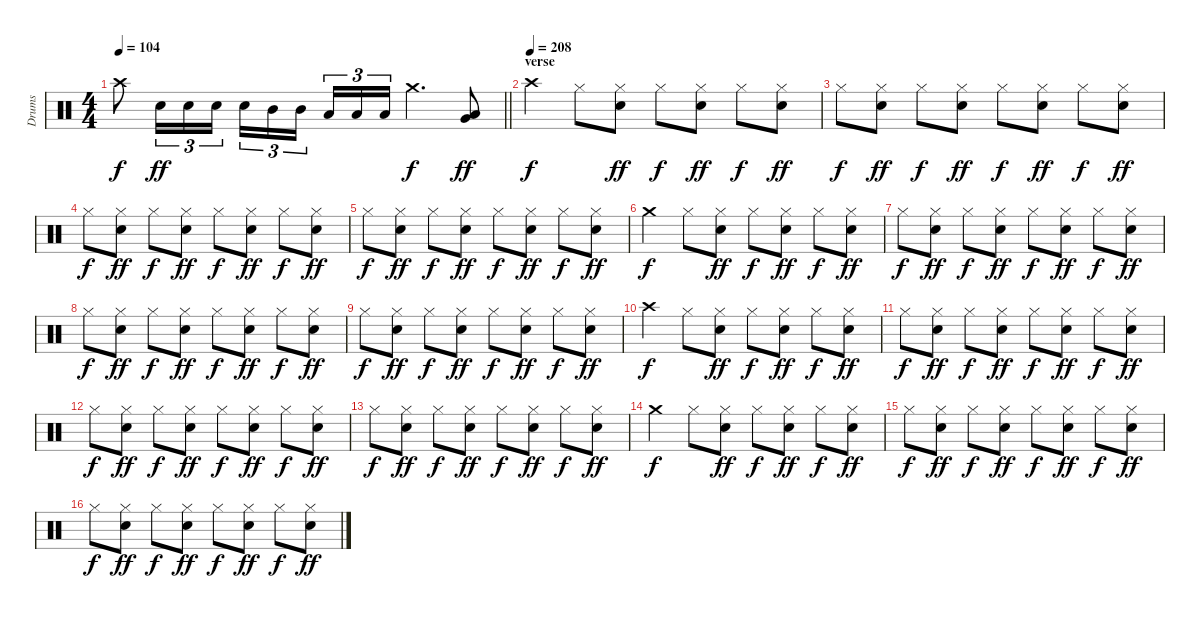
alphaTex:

\track ("Drums" "Drums") {instrument percussion}
\staff {score}
\articulation defaults
\ts (4 4)
\tempo 104
\clef neutral
\barLineRight lightlight
\ks c "Crash high (hit)".8{dy f} "Snare (hit) 2".16{tu (3 2) dy ff} "Snare (hit) 2".16{tu (3 2)} "Snare (hit) 2".16{tu (3 2)} "Snare (hit) 2".16{tu (3 2)} "Mid Tom (hit)".16{tu (3 2)} "Mid Tom (hit)".16{tu (3 2) beam splitsecondary} "Low Tom (hit)".16{tu (3 2)} "Low Tom (hit)".16{tu (3 2)} "Low Tom (hit)".16{tu (3 2)} "Crash medium (hit)".4{d dy f}
("Low Tom (hit)" "Very Low Tom (hit)").8{dy ff} |
\section ("" "verse")
\tempo (208)
"Crash high (hit)".4{dy f} "Hi-Hat (closed)".8 ("Hi-Hat (closed)" "Snare (hit) 2").8{dy ff} "Hi-Hat (closed)".8{dy f} ("Hi-Hat (closed)" "Snare (hit) 2").8{dy ff} "Hi-Hat (closed)".8{dy f} ("Hi-Hat (closed)" "Snare (hit) 2").8{dy ff} |
"Hi-Hat (closed)".8{dy f} ("Hi-Hat (closed)" "Snare (hit) 2").8{dy ff} "Hi-Hat (closed)".8{dy f} ("Hi-Hat (closed)" "Snare (hit) 2").8{dy ff} "Hi-Hat (closed)".8{dy f} ("Hi-Hat (closed)" "Snare (hit) 2").8{dy ff} "Hi-Hat (closed)".8{dy f} ("Hi-Hat (closed)" "Snare (hit) 2").8{dy ff} |
"Hi-Hat (closed)".8{dy f} ("Hi-Hat (closed)" "Snare (hit) 2").8{dy ff} "Hi-Hat (closed)".8{dy f} ("Hi-Hat (closed)" "Snare (hit) 2").8{dy ff} "Hi-Hat (closed)".8{dy f} ("Hi-Hat (closed)" "Snare (hit) 2").8{dy ff} "Hi-Hat (closed)".8{dy f} ("Hi-Hat (closed)" "Snare (hit) 2").8{dy ff} |
"Hi-Hat (closed)".8{dy f} ("Hi-Hat (closed)" "Snare (hit) 2").8{dy ff} "Hi-Hat (closed)".8{dy f} ("Hi-Hat (closed)" "Snare (hit) 2").8{dy ff} "Hi-Hat (closed)".8{dy f} ("Hi-Hat (closed)" "Snare (hit) 2").8{dy ff} "Hi-Hat (closed)".8{dy f} ("Hi-Hat (closed)" "Snare (hit) 2").8{dy ff} |
"Crash medium (hit)".4{dy f} "Hi-Hat (closed)".8 ("Hi-Hat (closed)" "Snare (hit) 2").8{dy ff} "Hi-Hat (closed)".8{dy f} ("Hi-Hat (closed)" "Snare (hit) 2").8{dy ff} "Hi-Hat (closed)".8{dy f} ("Hi-Hat (closed)" "Snare (hit) 2").8{dy ff} |
"Hi-Hat (closed)".8{dy f} ("Hi-Hat (closed)" "Snare (hit) 2").8{dy ff} "Hi-Hat (closed)".8{dy f} ("Hi-Hat (closed)" "Snare (hit) 2").8{dy ff} "Hi-Hat (closed)".8{dy f} ("Hi-Hat (closed)" "Snare (hit) 2").8{dy ff} "Hi-Hat (closed)".8{dy f} ("Hi-Hat (closed)" "Snare (hit) 2").8{dy ff} |
"Hi-Hat (closed)".8{dy f} ("Hi-Hat (closed)" "Snare (hit) 2").8{dy ff} "Hi-Hat (closed)".8{dy f} ("Hi-Hat (closed)" "Snare (hit) 2").8{dy ff} "Hi-Hat (closed)".8{dy f} ("Hi-Hat (closed)" "Snare (hit) 2").8{dy ff} "Hi-Hat (closed)".8{dy f} ("Hi-Hat (closed)" "Snare (hit) 2").8{dy ff} |
"Hi-Hat (closed)".8{dy f} ("Hi-Hat (closed)" "Snare (hit) 2").8{dy ff} "Hi-Hat (closed)".8{dy f} ("Hi-Hat (closed)" "Snare (hit) 2").8{dy ff} "Hi-Hat (closed)".8{dy f} ("Hi-Hat (closed)" "Snare (hit) 2").8{dy ff} "Hi-Hat (closed)".8{dy f} ("Hi-Hat (closed)" "Snare (hit) 2").8{dy ff} |
"Crash high (hit)".4{dy f} "Hi-Hat (closed)".8 ("Hi-Hat (closed)" "Snare (hit) 2").8{dy ff} "Hi-Hat (closed)".8{dy f} ("Hi-Hat (closed)" "Snare (hit) 2").8{dy ff} "Hi-Hat (closed)".8{dy f} ("Hi-Hat (closed)" "Snare (hit) 2").8{dy ff} |
"Hi-Hat (closed)".8{dy f} ("Hi-Hat (closed)" "Snare (hit) 2").8{dy ff} "Hi-Hat (closed)".8{dy f} ("Hi-Hat (closed)" "Snare (hit) 2").8{dy ff} "Hi-Hat (closed)".8{dy f} ("Hi-Hat (closed)" "Snare (hit) 2").8{dy ff} "Hi-Hat (closed)".8{dy f} ("Hi-Hat (closed)" "Snare (hit) 2").8{dy ff} |
"Hi-Hat (closed)".8{dy f} ("Hi-Hat (closed)" "Snare (hit) 2").8{dy ff} "Hi-Hat (closed)".8{dy f} ("Hi-Hat (closed)" "Snare (hit) 2").8{dy ff} "Hi-Hat (closed)".8{dy f} ("Hi-Hat (closed)" "Snare (hit) 2").8{dy ff} "Hi-Hat (closed)".8{dy f} ("Hi-Hat (closed)" "Snare (hit) 2").8{dy ff} |
"Hi-Hat (closed)".8{dy f} ("Hi-Hat (closed)" "Snare (hit) 2").8{dy ff} "Hi-Hat (closed)".8{dy f} ("Hi-Hat (closed)" "Snare (hit) 2").8{dy ff} "Hi-Hat (closed)".8{dy f} ("Hi-Hat (closed)" "Snare (hit) 2").8{dy ff} "Hi-Hat (closed)".8{dy f} ("Hi-Hat (closed)" "Snare (hit) 2").8{dy ff} |
"Crash medium (hit)".4{dy f} "Hi-Hat (closed)".8 ("Hi-Hat (closed)" "Snare (hit) 2").8{dy ff} "Hi-Hat (closed)".8{dy f} ("Hi-Hat (closed)" "Snare (hit) 2").8{dy ff} "Hi-Hat (closed)".8{dy f} ("Hi-Hat (closed)" "Snare (hit) 2").8{dy ff} |
"Hi-Hat (closed)".8{dy f} ("Hi-Hat (closed)" "Snare (hit) 2").8{dy ff} "Hi-Hat (closed)".8{dy f} ("Hi-Hat (closed)" "Snare (hit) 2").8{dy ff} "Hi-Hat (closed)".8{dy f} ("Hi-Hat (closed)" "Snare (hit) 2").8{dy ff} "Hi-Hat (closed)".8{dy f} ("Hi-Hat (closed)" "Snare (hit) 2").8{dy ff} |
"Hi-Hat (closed)".8{dy f} ("Hi-Hat (closed)" "Snare (hit) 2").8{dy ff} "Hi-Hat (closed)".8{dy f} ("Hi-Hat (closed)" "Snare (hit) 2").8{dy ff} "Hi-Hat (closed)".8{dy f} ("Hi-Hat (closed)" "Snare (hit) 2").8{dy ff} "Hi-Hat (closed)".8{dy f} ("Hi-Hat (closed)" "Snare (hit) 2").8{dy ff}
